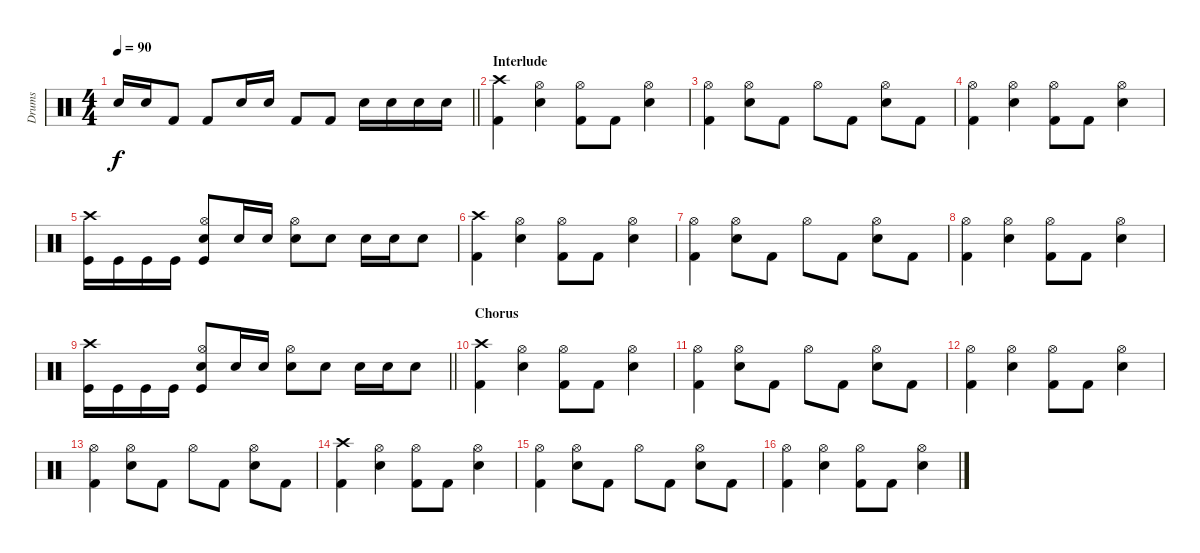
\track ("Drums " "Drums ") {instrument percussion}
\staff {score}
\articulation defaults
\ts (4 4)
\tempo 90
\clef neutral
\barLineRight lightlight
\ks c "Electric Snare (hit)".16{dy f} "Electric Snare (hit)".16 "Kick (hit) 2".8 "Kick (hit) 2".8 "Electric Snare (hit)".16 "Electric Snare (hit)".16 "Kick (hit) 2".8 "Kick (hit) 2".8 "Electric Snare (hit)".16 "Electric Snare (hit)".16 "Electric Snare (hit)".16 "Electric Snare (hit)".16
|
\section ("" "Interlude")
("Crash high (hit)" "Kick (hit) 2").4 ("Hi-Hat (open)" "Electric Snare (hit)").4 ("Hi-Hat (open)" "Kick (hit) 2").8 "Kick (hit) 2".8 ("Hi-Hat (open)" "Electric Snare (hit)").4 |
("Hi-Hat (open)" "Kick (hit) 2").4 ("Hi-Hat (open)" "Electric Snare (hit)").8 "Kick (hit) 2".8 "Hi-Hat (open)".8 "Kick (hit) 2".8 ("Hi-Hat (open)" "Electric Snare (hit)").8 "Kick (hit) 2".8 |
("Hi-Hat (open)" "Kick (hit) 2").4 ("Hi-Hat (open)" "Electric Snare (hit)").4 ("Hi-Hat (open)" "Kick (hit) 2").8 "Kick (hit) 2".8 ("Hi-Hat (open)" "Electric Snare (hit)").4 |
("Crash high (hit)" "Kick (hit)").16 "Kick (hit)".16 "Kick (hit)".16 "Kick (hit)".16 ("Hi-Hat (open)" "Electric Snare (hit)" "Kick (hit)").8 "Electric Snare (hit)".16 "Electric Snare (hit)".16 ("Hi-Hat (open)" "Electric Snare (hit)").8 "Electric Snare (hit)".8 "Electric Snare (hit)".16 "Electric Snare (hit)".16 "Electric Snare (hit)".8 |
("Crash high (hit)" "Kick (hit) 2").4 ("Hi-Hat (open)" "Electric Snare (hit)").4 ("Hi-Hat (open)" "Kick (hit) 2").8 "Kick (hit) 2".8 ("Hi-Hat (open)" "Electric Snare (hit)").4 |
("Hi-Hat (open)" "Kick (hit) 2").4 ("Hi-Hat (open)" "Electric Snare (hit)").8 "Kick (hit) 2".8 "Hi-Hat (open)".8 "Kick (hit) 2".8 ("Hi-Hat (open)" "Electric Snare (hit)").8 "Kick (hit) 2".8 |
("Hi-Hat (open)" "Kick (hit) 2").4 ("Hi-Hat (open)" "Electric Snare (hit)").4 ("Hi-Hat (open)" "Kick (hit) 2").8 "Kick (hit) 2".8 ("Hi-Hat (open)" "Electric Snare (hit)").4 |
\barLineRight lightlight
("Crash high (hit)" "Kick (hit)").16 "Kick (hit)".16 "Kick (hit)".16 "Kick (hit)".16 ("Hi-Hat (open)" "Electric Snare (hit)" "Kick (hit)").8 "Electric Snare (hit)".16 "Electric Snare (hit)".16 ("Hi-Hat (open)" "Electric Snare (hit)").8 "Electric Snare (hit)".8 "Electric Snare (hit)".16 "Electric Snare (hit)".16 "Electric Snare (hit)".8 |
\section ("" "Chorus ")
("Crash high (hit)" "Kick (hit) 2").4 ("Hi-Hat (open)" "Electric Snare (hit)").4 ("Hi-Hat (open)" "Kick (hit) 2").8 "Kick (hit) 2".8 ("Hi-Hat (open)" "Electric Snare (hit)").4 |
("Hi-Hat (open)" "Kick (hit) 2").4 ("Hi-Hat (open)" "Electric Snare (hit)").8 "Kick (hit) 2".8 "Hi-Hat (open)".8 "Kick (hit) 2".8 ("Hi-Hat (open)" "Electric Snare (hit)").8 "Kick (hit) 2".8 |
("Hi-Hat (open)" "Kick (hit) 2").4 ("Hi-Hat (open)" "Electric Snare (hit)").4 ("Hi-Hat (open)" "Kick (hit) 2").8 "Kick (hit) 2".8 ("Hi-Hat (open)" "Electric Snare (hit)").4 |
("Hi-Hat (open)" "Kick (hit) 2").4 ("Hi-Hat (open)" "Electric Snare (hit)").8 "Kick (hit) 2".8 "Hi-Hat (open)".8 "Kick (hit) 2".8 ("Hi-Hat (open)" "Electric Snare (hit)").8 "Kick (hit) 2".8 |
("Crash high (hit)" "Kick (hit) 2").4 ("Hi-Hat (open)" "Electric Snare (hit)").4 ("Hi-Hat (open)" "Kick (hit) 2").8 "Kick (hit) 2".8 ("Hi-Hat (open)" "Electric Snare (hit)").4 |
("Hi-Hat (open)" "Kick (hit) 2").4 ("Hi-Hat (open)" "Electric Snare (hit)").8 "Kick (hit) 2".8 "Hi-Hat (open)".8 "Kick (hit) 2".8 ("Hi-Hat (open)" "Electric Snare (hit)").8 "Kick (hit) 2".8 |
("Hi-Hat (open)" "Kick (hit) 2").4 ("Hi-Hat (open)" "Electric Snare (hit)").4 ("Hi-Hat (open)" "Kick (hit) 2").8 "Kick (hit) 2".8 ("Hi-Hat (open)" "Electric Snare (hit)").4
